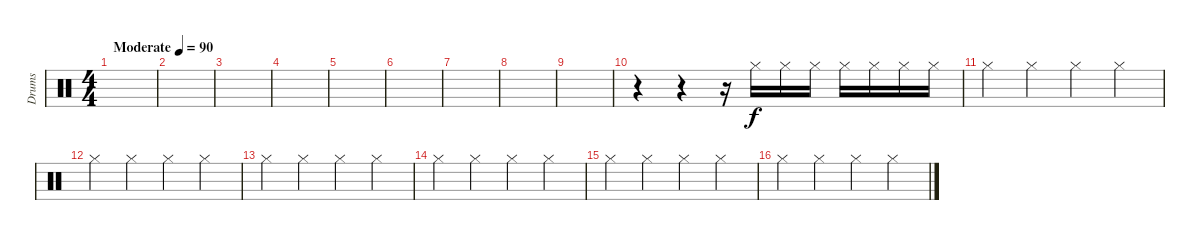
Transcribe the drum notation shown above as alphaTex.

\track ("Drums" "Drums") {instrument percussion}
\staff {score}
\articulation defaults
\ts (4 4)
\tempo (90 "Moderate")
\clef neutral
\ks c
|
|
|
|
|
|
|
|
|
r.4 r.4 r.16 "Hi-Hat (closed)".16 "Hi-Hat (closed)".16 "Hi-Hat (closed)".16 "Hi-Hat (closed)".16 "Hi-Hat (closed)".16 "Hi-Hat (closed)".16 "Hi-Hat (closed)".16 |
"Hi-Hat (closed)".4 "Hi-Hat (closed)".4 "Hi-Hat (closed)".4 "Hi-Hat (closed)".4 |
"Hi-Hat (closed)".4 "Hi-Hat (closed)".4 "Hi-Hat (closed)".4 "Hi-Hat (closed)".4 |
"Hi-Hat (closed)".4 "Hi-Hat (closed)".4 "Hi-Hat (closed)".4 "Hi-Hat (closed)".4 |
"Hi-Hat (closed)".4 "Hi-Hat (closed)".4 "Hi-Hat (closed)".4 "Hi-Hat (closed)".4 |
"Hi-Hat (closed)".4 "Hi-Hat (closed)".4 "Hi-Hat (closed)".4 "Hi-Hat (closed)".4 |
"Hi-Hat (closed)".4 "Hi-Hat (closed)".4 "Hi-Hat (closed)".4 "Hi-Hat (closed)".4
